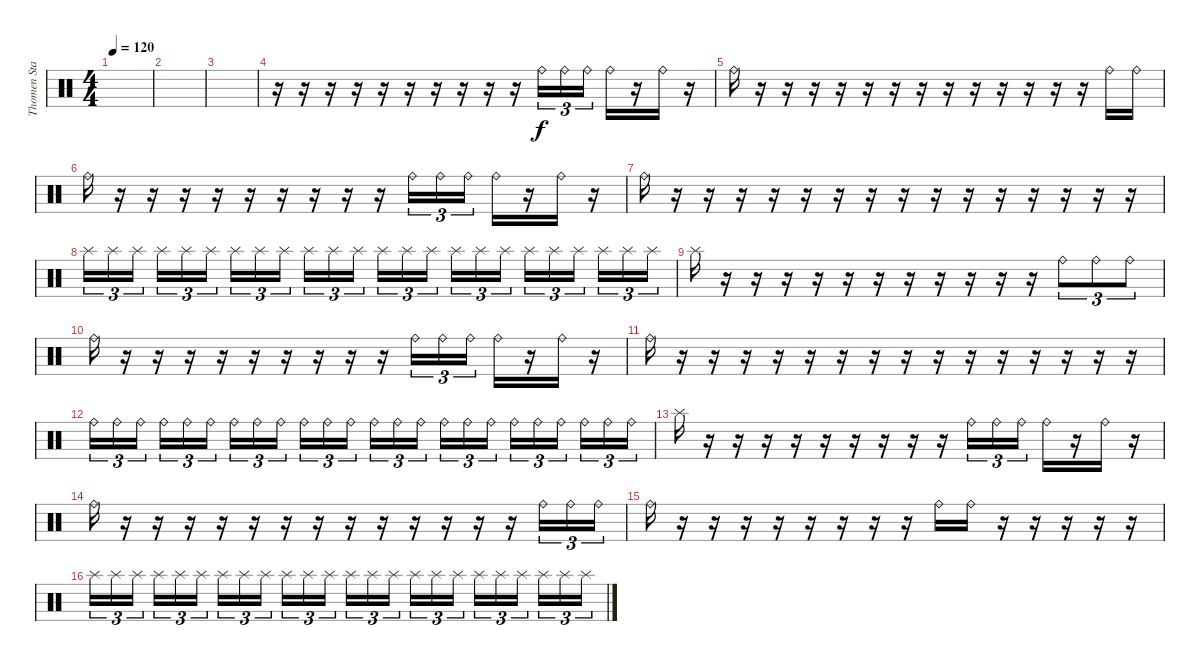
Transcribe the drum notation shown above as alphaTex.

\track ("Thomen Stauch" "Thomen Sta") {instrument percussion}
\staff {score}
\articulation defaults
\ts (4 4)
\tempo 120
\clef neutral
\ks c
|
|
|
r.16 r.16 r.16 r.16 r.16 r.16 r.16 r.16 r.16 r.16 "Ride (bell)".16{tu (3 2)} "Ride (bell)".16{tu (3 2)} "Ride (bell)".16{tu (3 2)} "Ride (bell)".16 r.16 "Ride (bell)".16 r.16 |
"Ride (bell)".16 r.16 r.16 r.16 r.16 r.16 r.16 r.16 r.16 r.16 r.16 r.16 r.16 r.16 "Ride (bell)".16 "Ride (bell)".16 |
"Ride (bell)".16 r.16 r.16 r.16 r.16 r.16 r.16 r.16 r.16 r.16 "Ride (bell)".16{tu (3 2)} "Ride (bell)".16{tu (3 2)} "Ride (bell)".16{tu (3 2)} "Ride (bell)".16 r.16 "Ride (bell)".16 r.16 |
"Ride (bell)".16 r.16 r.16 r.16 r.16 r.16 r.16 r.16 r.16 r.16 r.16 r.16 r.16 r.16 r.16 r.16{volume 0} |
"Splash (hit)".16{tu (3 2) volume 16} "Splash (hit)".16{tu (3 2)} "Splash (hit)".16{tu (3 2)} "Splash (hit)".16{tu (3 2)} "Splash (hit)".16{tu (3 2)} "Splash (hit)".16{tu (3 2)} "Splash (hit)".16{tu (3 2)} "Splash (hit)".16{tu (3 2)} "Splash (hit)".16{tu (3 2)} "Splash (hit)".16{tu (3 2)} "Splash (hit)".16{tu (3 2)} "Splash (hit)".16{tu (3 2)} "Splash (hit)".16{tu (3 2)} "Splash (hit)".16{tu (3 2)} "Splash (hit)".16{tu (3 2)} "Splash (hit)".16{tu (3 2)} "Splash (hit)".16{tu (3 2)} "Splash (hit)".16{tu (3 2)} "Splash (hit)".16{tu (3 2)} "Splash (hit)".16{tu (3 2)} "Splash (hit)".16{tu (3 2)} "Splash (hit)".16{tu (3 2)} "Splash (hit)".16{tu (3 2)} "Splash (hit)".16{tu (3 2)} |
"Splash (hit)".16 r.16 r.16 r.16 r.16 r.16 r.16 r.16 r.16 r.16 r.16 r.16 "Ride (bell)".8{tu (3 2)} "Ride (bell)".8{tu (3 2)} "Ride (bell)".8{tu (3 2)} |
"Ride (bell)".16 r.16 r.16 r.16 r.16 r.16 r.16 r.16 r.16 r.16 "Ride (bell)".16{tu (3 2)} "Ride (bell)".16{tu (3 2)} "Ride (bell)".16{tu (3 2)} "Ride (bell)".16 r.16 "Ride (bell)".16 r.16 |
"Ride (bell)".16 r.16 r.16 r.16 r.16 r.16 r.16 r.16 r.16 r.16 r.16 r.16 r.16 r.16 r.16 r.16{volume 6} |
"Ride (bell)".16{tu (3 2)} "Ride (bell)".16{tu (3 2)} "Ride (bell)".16{tu (3 2)} "Ride (bell)".16{tu (3 2)} "Ride (bell)".16{tu (3 2)} "Ride (bell)".16{tu (3 2)} "Ride (bell)".16{tu (3 2)} "Ride (bell)".16{tu (3 2)} "Ride (bell)".16{tu (3 2)} "Ride (bell)".16{tu (3 2)} "Ride (bell)".16{tu (3 2)} "Ride (bell)".16{tu (3 2)} "Ride (bell)".16{tu (3 2)} "Ride (bell)".16{tu (3 2)} "Ride (bell)".16{tu (3 2)} "Ride (bell)".16{tu (3 2)} "Ride (bell)".16{tu (3 2)} "Ride (bell)".16{tu (3 2)} "Ride (bell)".16{tu (3 2)} "Ride (bell)".16{tu (3 2)} "Ride (bell)".16{tu (3 2)} "Ride (bell)".16{tu (3 2)} "Ride (bell)".16{tu (3 2)} "Ride (bell)".16{tu (3 2)} |
"Splash (hit)".16{volume 16} r.16 r.16 r.16 r.16 r.16 r.16 r.16 r.16 r.16 "Ride (bell)".16{tu (3 2)} "Ride (bell)".16{tu (3 2)} "Ride (bell)".16{tu (3 2)} "Ride (bell)".16 r.16 "Ride (bell)".16 r.16 |
"Ride (bell)".16 r.16 r.16 r.16 r.16 r.16 r.16 r.16 r.16 r.16 r.16 r.16 r.16 r.16 "Ride (bell)".16{tu (3 2)} "Ride (bell)".16{tu (3 2)} "Ride (bell)".16{tu (3 2)} |
"Ride (bell)".16 r.16 r.16 r.16 r.16 r.16 r.16 r.16 r.16 "Ride (bell)".16 "Ride (bell)".16 r.16 r.16 r.16 r.16 r.16{volume 4} |
"Splash (hit)".16{tu (3 2) volume 16} "Splash (hit)".16{tu (3 2)} "Splash (hit)".16{tu (3 2)} "Splash (hit)".16{tu (3 2)} "Splash (hit)".16{tu (3 2)} "Splash (hit)".16{tu (3 2)} "Splash (hit)".16{tu (3 2)} "Splash (hit)".16{tu (3 2)} "Splash (hit)".16{tu (3 2)} "Splash (hit)".16{tu (3 2)} "Splash (hit)".16{tu (3 2)} "Splash (hit)".16{tu (3 2)} "Splash (hit)".16{tu (3 2)} "Splash (hit)".16{tu (3 2)} "Splash (hit)".16{tu (3 2)} "Splash (hit)".16{tu (3 2)} "Splash (hit)".16{tu (3 2)} "Splash (hit)".16{tu (3 2)} "Splash (hit)".16{tu (3 2)} "Splash (hit)".16{tu (3 2)} "Splash (hit)".16{tu (3 2)} "Splash (hit)".16{tu (3 2)} "Splash (hit)".16{tu (3 2)} "Splash (hit)".16{tu (3 2)}
